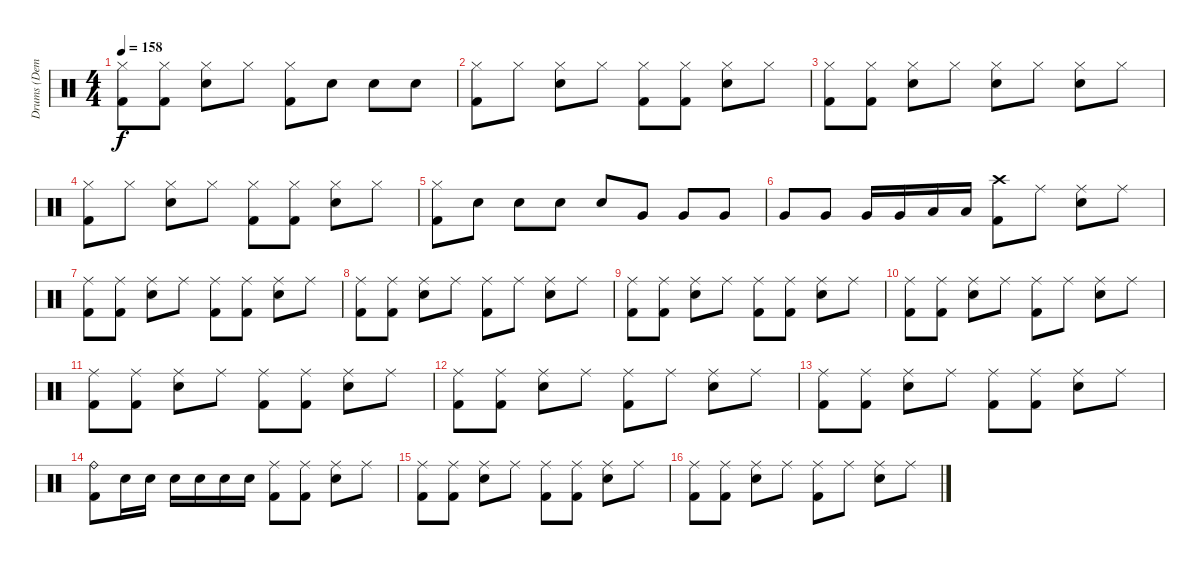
\track ("Drums (Demetra)" "Drums (Dem") {instrument percussion}
\staff {score}
\articulation defaults
\ts (4 4)
\tempo 158
\clef neutral
\ks c
("Hi-Hat (closed)" "Kick (hit) 2").8{dy f} ("Hi-Hat (closed)" "Kick (hit) 2").8 ("Hi-Hat (closed)" "Snare (hit) 2").8 "Hi-Hat (closed)".8 ("Hi-Hat (closed)" "Kick (hit) 2").8 "Snare (hit) 2".8 "Snare (hit) 2".8 "Snare (hit) 2".8 |
("Hi-Hat (closed)" "Kick (hit) 2").8 "Hi-Hat (closed)".8 ("Hi-Hat (closed)" "Snare (hit) 2").8 "Hi-Hat (closed)".8 ("Hi-Hat (closed)" "Kick (hit) 2").8 ("Hi-Hat (closed)" "Kick (hit) 2").8 ("Hi-Hat (closed)" "Snare (hit) 2").8 "Hi-Hat (closed)".8 |
("Hi-Hat (closed)" "Kick (hit) 2").8 ("Hi-Hat (closed)" "Kick (hit) 2").8 ("Hi-Hat (closed)" "Snare (hit) 2").8 "Hi-Hat (closed)".8 ("Hi-Hat (closed)" "Snare (hit) 2").8 "Hi-Hat (closed)".8 ("Hi-Hat (closed)" "Snare (hit) 2").8 "Hi-Hat (closed)".8 |
("Hi-Hat (closed)" "Kick (hit) 2").8 "Hi-Hat (closed)".8 ("Hi-Hat (closed)" "Snare (hit) 2").8 "Hi-Hat (closed)".8 ("Hi-Hat (closed)" "Kick (hit) 2").8 ("Hi-Hat (closed)" "Kick (hit) 2").8 ("Hi-Hat (closed)" "Snare (hit) 2").8 "Hi-Hat (closed)".8 |
("Hi-Hat (closed)" "Kick (hit) 2").8 "Snare (hit) 2".8 "Snare (hit) 2".8 "Snare (hit) 2".8 "Snare (hit) 2".8 "Very Low Tom (hit)".8 "Very Low Tom (hit)".8 "Very Low Tom (hit)".8 |
"Very Low Tom (hit)".8 "Very Low Tom (hit)".8 "Very Low Tom (hit)".16 "Very Low Tom (hit)".16 "Low Floor Tom (hit)".16 "Low Floor Tom (hit)".16 ("Crash high (hit)" "Kick (hit) 2").8 "Ride (middle)".8 ("Ride (middle)" "Snare (hit) 2").8 "Ride (middle)".8 |
("Ride (middle)" "Kick (hit) 2").8 ("Ride (middle)" "Kick (hit) 2").8 ("Ride (middle)" "Snare (hit) 2").8 "Ride (middle)".8 ("Ride (middle)" "Kick (hit) 2").8 ("Ride (middle)" "Kick (hit) 2").8 ("Ride (middle)" "Snare (hit) 2").8 "Ride (middle)".8 |
("Ride (middle)" "Kick (hit) 2").8 ("Ride (middle)" "Kick (hit) 2").8 ("Ride (middle)" "Snare (hit) 2").8 "Ride (middle)".8 ("Ride (middle)" "Kick (hit) 2").8 "Ride (middle)".8 ("Ride (middle)" "Snare (hit) 2").8 "Ride (middle)".8 |
("Ride (middle)" "Kick (hit) 2").8 ("Ride (middle)" "Kick (hit) 2").8 ("Ride (middle)" "Snare (hit) 2").8 "Ride (middle)".8 ("Ride (middle)" "Kick (hit) 2").8 ("Ride (middle)" "Kick (hit) 2").8 ("Ride (middle)" "Snare (hit) 2").8 "Ride (middle)".8 |
("Ride (middle)" "Kick (hit) 2").8 ("Ride (middle)" "Kick (hit) 2").8 ("Ride (middle)" "Snare (hit) 2").8 "Ride (middle)".8 ("Ride (middle)" "Kick (hit) 2").8 "Ride (middle)".8 ("Ride (middle)" "Snare (hit) 2").8 "Ride (middle)".8 |
("Ride (middle)" "Kick (hit) 2").8 ("Ride (middle)" "Kick (hit) 2").8 ("Ride (middle)" "Snare (hit) 2").8 "Ride (middle)".8 ("Ride (middle)" "Kick (hit) 2").8 ("Ride (middle)" "Kick (hit) 2").8 ("Ride (middle)" "Snare (hit) 2").8 "Ride (middle)".8 |
("Ride (middle)" "Kick (hit) 2").8 ("Ride (middle)" "Kick (hit) 2").8 ("Ride (middle)" "Snare (hit) 2").8 "Ride (middle)".8 ("Ride (middle)" "Kick (hit) 2").8 "Ride (middle)".8 ("Ride (middle)" "Snare (hit) 2").8 "Ride (middle)".8 |
("Ride (middle)" "Kick (hit) 2").8 ("Ride (middle)" "Kick (hit) 2").8 ("Ride (middle)" "Snare (hit) 2").8 "Ride (middle)".8 ("Ride (middle)" "Kick (hit) 2").8 ("Ride (middle)" "Kick (hit) 2").8 ("Ride (middle)" "Snare (hit) 2").8 "Ride (middle)".8 |
("Ride (bell)" "Kick (hit) 2").8 "Snare (hit) 2".16 "Snare (hit) 2".16 "Snare (hit) 2".16 "Snare (hit) 2".16 "Snare (hit) 2".16 "Snare (hit) 2".16 ("Ride (middle)" "Kick (hit) 2").8 ("Ride (middle)" "Kick (hit) 2").8 ("Ride (middle)" "Snare (hit) 2").8 "Ride (middle)".8 |
("Ride (middle)" "Kick (hit) 2").8 ("Ride (middle)" "Kick (hit) 2").8 ("Ride (middle)" "Snare (hit) 2").8 "Ride (middle)".8 ("Ride (middle)" "Kick (hit) 2").8 ("Ride (middle)" "Kick (hit) 2").8 ("Ride (middle)" "Snare (hit) 2").8 "Ride (middle)".8 |
("Ride (middle)" "Kick (hit) 2").8 ("Ride (middle)" "Kick (hit) 2").8 ("Ride (middle)" "Snare (hit) 2").8 "Ride (middle)".8 ("Ride (middle)" "Kick (hit) 2").8 "Ride (middle)".8 ("Ride (middle)" "Snare (hit) 2").8 "Ride (middle)".8
